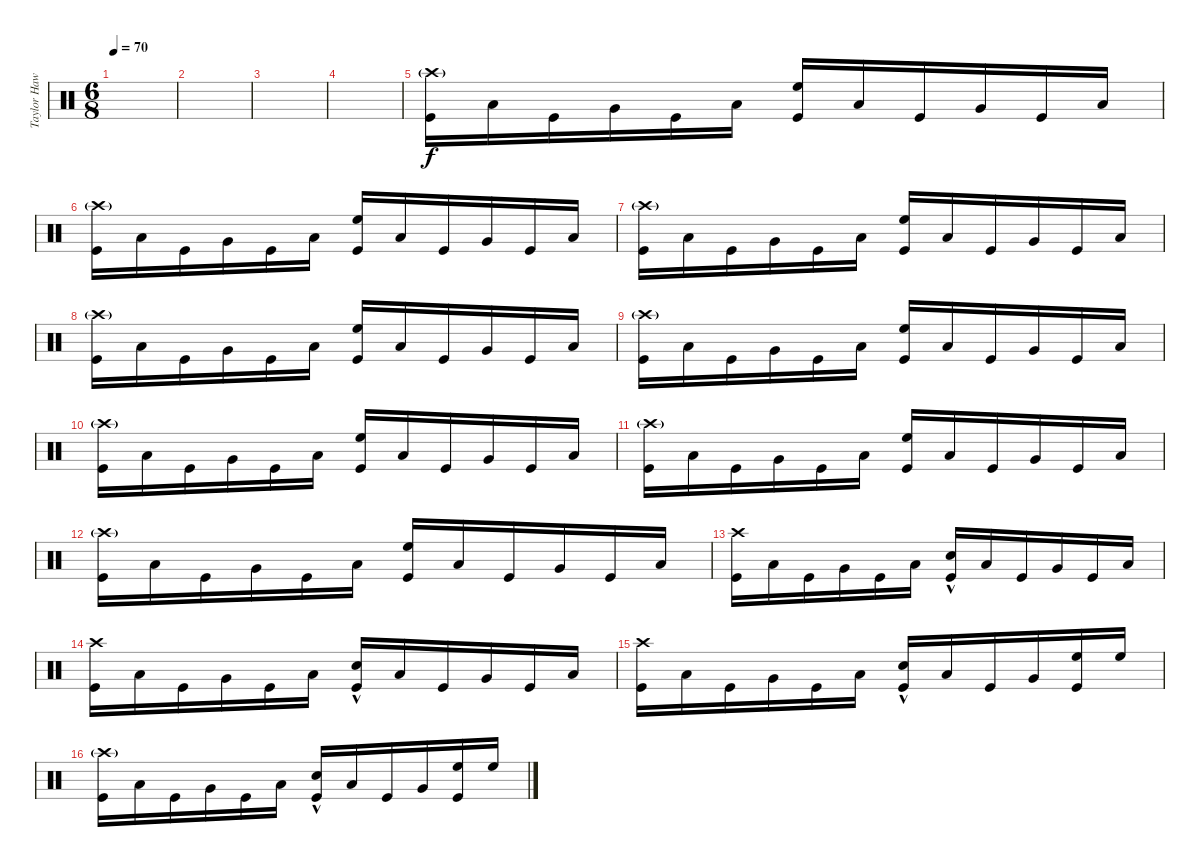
\track ("Taylor Hawkins - Drums" "Taylor Haw") {instrument percussion}
\staff {score}
\articulation defaults
\ts (6 8)
\tempo 70
\clef neutral
\ks c
|
|
|
|
("Crash high (hit)"{g} "Kick (hit)").16 "Low Tom (hit)".16 "Kick (hit)".16 "Very Low Tom (hit)".16 "Kick (hit)".16 "Low Floor Tom (hit)".16 ("High Floor Tom (hit)" "Kick (hit)").16 "Low Tom (hit)".16 "Kick (hit)".16 "Very Low Tom (hit)".16 "Kick (hit)".16 "Low Floor Tom (hit)".16 |
("Crash high (hit)"{g} "Kick (hit)").16 "Low Tom (hit)".16 "Kick (hit)".16 "Very Low Tom (hit)".16 "Kick (hit)".16 "Low Floor Tom (hit)".16 ("High Floor Tom (hit)" "Kick (hit)").16 "Low Tom (hit)".16 "Kick (hit)".16 "Very Low Tom (hit)".16 "Kick (hit)".16 "Low Floor Tom (hit)".16 |
("Crash high (hit)"{g} "Kick (hit)").16 "Low Tom (hit)".16 "Kick (hit)".16 "Very Low Tom (hit)".16 "Kick (hit)".16 "Low Floor Tom (hit)".16 ("High Floor Tom (hit)" "Kick (hit)").16 "Low Tom (hit)".16 "Kick (hit)".16 "Very Low Tom (hit)".16 "Kick (hit)".16 "Low Floor Tom (hit)".16 |
("Crash high (hit)"{g} "Kick (hit)").16 "Low Tom (hit)".16 "Kick (hit)".16 "Very Low Tom (hit)".16 "Kick (hit)".16 "Low Floor Tom (hit)".16 ("High Floor Tom (hit)" "Kick (hit)").16 "Low Tom (hit)".16 "Kick (hit)".16 "Very Low Tom (hit)".16 "Kick (hit)".16 "Low Floor Tom (hit)".16 |
("Crash high (hit)"{g} "Kick (hit)").16 "Low Tom (hit)".16 "Kick (hit)".16 "Very Low Tom (hit)".16 "Kick (hit)".16 "Low Floor Tom (hit)".16 ("High Floor Tom (hit)" "Kick (hit)").16 "Low Tom (hit)".16 "Kick (hit)".16 "Very Low Tom (hit)".16 "Kick (hit)".16 "Low Floor Tom (hit)".16 |
("Crash high (hit)"{g} "Kick (hit)").16 "Low Tom (hit)".16 "Kick (hit)".16 "Very Low Tom (hit)".16 "Kick (hit)".16 "Low Floor Tom (hit)".16 ("High Floor Tom (hit)" "Kick (hit)").16 "Low Tom (hit)".16 "Kick (hit)".16 "Very Low Tom (hit)".16 "Kick (hit)".16 "Low Floor Tom (hit)".16 |
("Crash high (hit)"{g} "Kick (hit)").16 "Low Tom (hit)".16 "Kick (hit)".16 "Very Low Tom (hit)".16 "Kick (hit)".16 "Low Floor Tom (hit)".16 ("High Floor Tom (hit)" "Kick (hit)").16 "Low Tom (hit)".16 "Kick (hit)".16 "Very Low Tom (hit)".16 "Kick (hit)".16 "Low Floor Tom (hit)".16 |
("Crash high (hit)"{g} "Kick (hit)").16 "Low Tom (hit)".16 "Kick (hit)".16 "Very Low Tom (hit)".16 "Kick (hit)".16 "Low Floor Tom (hit)".16 ("High Floor Tom (hit)" "Kick (hit)").16 "Low Tom (hit)".16 "Kick (hit)".16 "Very Low Tom (hit)".16 "Kick (hit)".16 "Low Floor Tom (hit)".16 |
("Crash high (hit)" "Kick (hit)").16 "Low Tom (hit)".16 "Kick (hit)".16 "Very Low Tom (hit)".16 "Kick (hit)".16 "Low Floor Tom (hit)".16 ("Electric Snare (hit)"{hac} "Kick (hit)").16 "Low Tom (hit)".16 "Kick (hit)".16 "Very Low Tom (hit)".16 "Kick (hit)".16 "Low Floor Tom (hit)".16 |
("Crash high (hit)" "Kick (hit)").16 "Low Tom (hit)".16 "Kick (hit)".16 "Very Low Tom (hit)".16 "Kick (hit)".16 "Low Floor Tom (hit)".16 ("Electric Snare (hit)"{hac} "Kick (hit)").16 "Low Tom (hit)".16 "Kick (hit)".16 "Very Low Tom (hit)".16 "Kick (hit)".16 "Low Floor Tom (hit)".16 |
("Crash high (hit)" "Kick (hit)").16 "Low Tom (hit)".16 "Kick (hit)".16 "Very Low Tom (hit)".16 "Kick (hit)".16 "Low Floor Tom (hit)".16 ("Electric Snare (hit)"{hac} "Kick (hit)").16 "Low Tom (hit)".16 "Kick (hit)".16 "Very Low Tom (hit)".16 ("High Floor Tom (hit)" "Kick (hit)").16 "High Floor Tom (hit)".16 |
("Crash high (hit)"{g} "Kick (hit)").16 "Low Tom (hit)".16 "Kick (hit)".16 "Very Low Tom (hit)".16 "Kick (hit)".16 "Low Floor Tom (hit)".16 ("Electric Snare (hit)"{hac} "Kick (hit)").16 "Low Tom (hit)".16 "Kick (hit)".16 "Very Low Tom (hit)".16 ("High Floor Tom (hit)" "Kick (hit)").16 "High Floor Tom (hit)".16
